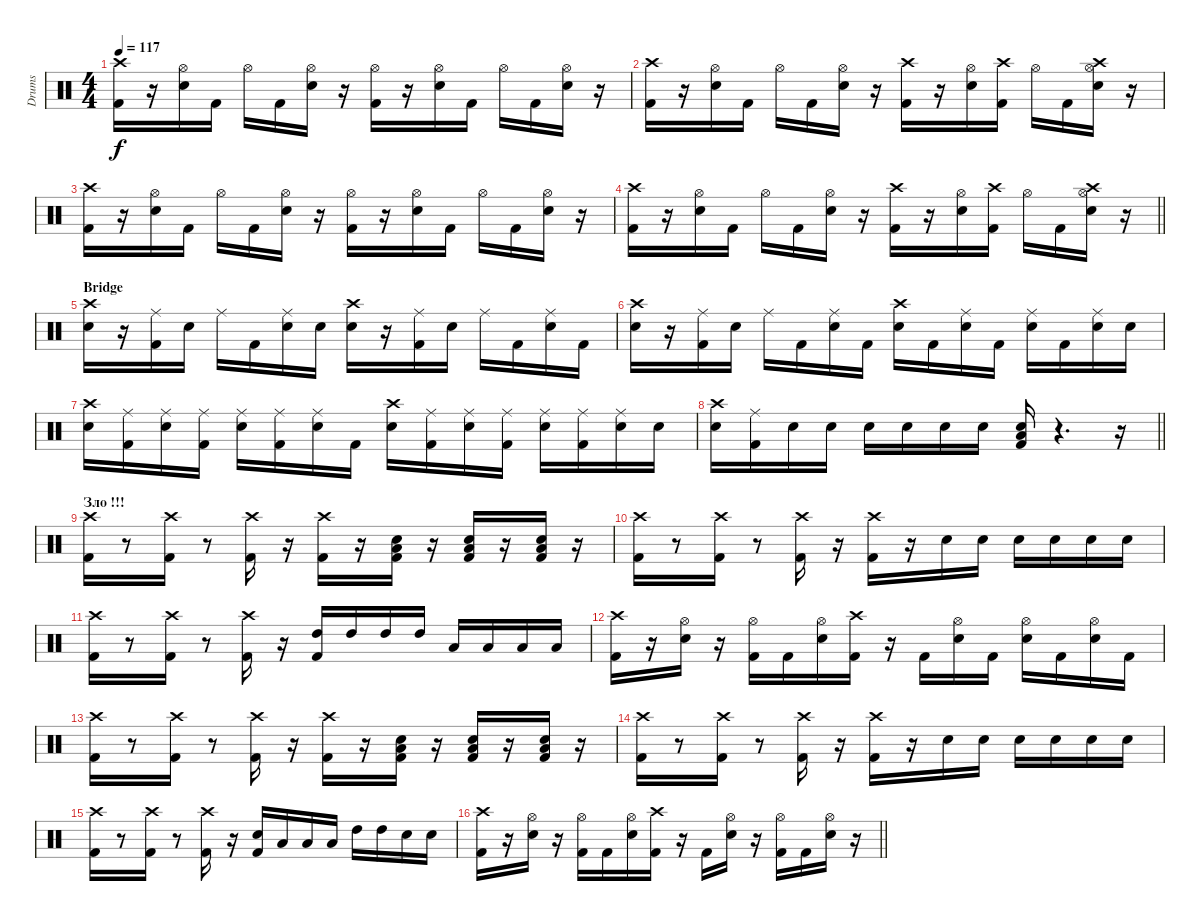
\track ("Drums" "Drums") {instrument percussion}
\staff {score}
\articulation defaults
\ts (4 4)
\tempo 117
\clef neutral
\ks c
("Kick (hit) 2" "Crash high (hit)").16{dy f} r.16 ("Snare (hit) 2" "Hi-Hat (open)").16 "Kick (hit) 2".16 "Hi-Hat (open)".16 "Kick (hit) 2".16 ("Snare (hit) 2" "Hi-Hat (open)").16 r.16 ("Kick (hit) 2" "Hi-Hat (open)").16 r.16 ("Snare (hit) 2" "Hi-Hat (open)").16 "Kick (hit) 2".16 "Hi-Hat (open)".16 "Kick (hit) 2".16 ("Snare (hit) 2" "Hi-Hat (open)").16 r.16 |
("Kick (hit) 2" "Crash high (hit)").16 r.16 ("Snare (hit) 2" "Hi-Hat (open)").16 "Kick (hit) 2".16 "Hi-Hat (open)".16 "Kick (hit) 2".16 ("Snare (hit) 2" "Hi-Hat (open)").16 r.16 ("Kick (hit) 2" "Crash high (hit)").16 r.16 ("Snare (hit) 2" "Hi-Hat (open)").16 ("Kick (hit) 2" "Crash high (hit)").16 "Hi-Hat (open)".16 "Kick (hit) 2".16 ("Snare (hit) 2" "Hi-Hat (open)" "Crash high (hit)").16 r.16 |
("Kick (hit) 2" "Crash high (hit)").16 r.16 ("Snare (hit) 2" "Hi-Hat (open)").16 "Kick (hit) 2".16 "Hi-Hat (open)".16 "Kick (hit) 2".16 ("Snare (hit) 2" "Hi-Hat (open)").16 r.16 ("Kick (hit) 2" "Hi-Hat (open)").16 r.16 ("Snare (hit) 2" "Hi-Hat (open)").16 "Kick (hit) 2".16 "Hi-Hat (open)".16 "Kick (hit) 2".16 ("Snare (hit) 2" "Hi-Hat (open)").16 r.16 |
\barLineRight lightlight
("Kick (hit) 2" "Crash high (hit)").16 r.16 ("Snare (hit) 2" "Hi-Hat (open)").16 "Kick (hit) 2".16 "Hi-Hat (open)".16 "Kick (hit) 2".16 ("Snare (hit) 2" "Hi-Hat (open)").16 r.16 ("Kick (hit) 2" "Crash high (hit)").16 r.16 ("Snare (hit) 2" "Hi-Hat (open)").16 ("Kick (hit) 2" "Crash high (hit)").16 "Hi-Hat (open)".16 "Kick (hit) 2".16 ("Snare (hit) 2" "Hi-Hat (open)" "Crash high (hit)").16 r.16 |
\section ("" "Bridge")
("Snare (hit) 2" "Crash high (hit)").16 r.16 ("Kick (hit) 2" "Ride (middle)").16 "Snare (hit) 2".16 "Ride (middle)".16 "Kick (hit) 2".16 ("Snare (hit) 2" "Ride (middle)").16 "Snare (hit) 2".16 ("Snare (hit) 2" "Crash high (hit)").16 r.16 ("Kick (hit) 2" "Ride (middle)").16 "Snare (hit) 2".16 "Ride (middle)".16 "Kick (hit) 2".16 ("Snare (hit) 2" "Ride (middle)").16 "Kick (hit) 2".16 |
("Snare (hit) 2" "Crash high (hit)").16 r.16 ("Kick (hit) 2" "Ride (middle)").16 "Snare (hit) 2".16 "Ride (middle)".16 "Kick (hit) 2".16 ("Snare (hit) 2" "Ride (middle)").16 "Kick (hit) 2".16 ("Snare (hit) 2" "Crash high (hit)").16 "Kick (hit) 2".16 ("Snare (hit) 2" "Ride (middle)").16 "Kick (hit) 2".16 ("Snare (hit) 2" "Ride (middle)").16 "Kick (hit) 2".16 ("Snare (hit) 2" "Ride (middle)").16 "Snare (hit) 2".16 |
("Snare (hit) 2" "Crash high (hit)").16 ("Kick (hit) 2" "Ride (middle)").16 ("Snare (hit) 2" "Ride (middle)").16 ("Kick (hit) 2" "Ride (middle)").16 ("Snare (hit) 2" "Ride (middle)").16 ("Kick (hit) 2" "Ride (middle)").16 ("Snare (hit) 2" "Ride (middle)").16 "Kick (hit) 2".16 ("Snare (hit) 2" "Crash high (hit)").16 ("Kick (hit) 2" "Ride (middle)").16 ("Snare (hit) 2" "Ride (middle)").16 ("Kick (hit) 2" "Ride (middle)").16 ("Snare (hit) 2" "Ride (middle)").16 ("Kick (hit) 2" "Ride (middle)").16 ("Snare (hit) 2" "Ride (middle)").16 "Snare (hit) 2".16 |
\barLineRight lightlight
("Crash high (hit)" "Snare (hit) 2").16 ("Ride (middle)" "Kick (hit) 2").16 "Snare (hit) 2".16 "Snare (hit) 2".16 "Snare (hit) 2".16 "Snare (hit) 2".16 "Snare (hit) 2".16 "Snare (hit) 2".16 ("Kick (hit) 2" "Snare (hit) 2" "Low Floor Tom (hit)").16 r.4{d} r.16 |
\section ("" "Зло !!!")
("Kick (hit) 2" "Crash high (hit)").16 r.8 ("Kick (hit) 2" "Crash high (hit)").16 r.8 ("Kick (hit) 2" "Crash high (hit)").16 r.16 ("Kick (hit) 2" "Crash high (hit)").16 r.16 ("Kick (hit) 2" "Snare (hit) 2" "Low Floor Tom (hit)").16 r.16 ("Kick (hit) 2" "Snare (hit) 2" "Low Tom (hit)").16 r.16 ("Kick (hit) 2" "Snare (hit) 2" "Low Tom (hit)").16 r.16 |
("Kick (hit) 2" "Crash high (hit)").16 r.8 ("Kick (hit) 2" "Crash high (hit)").16 r.8 ("Kick (hit) 2" "Crash high (hit)").16 r.16 ("Kick (hit) 2" "Crash high (hit)").16 r.16 "Snare (hit) 2".16 "Snare (hit) 2".16 "Snare (hit) 2".16 "Snare (hit) 2".16 "Snare (hit) 2".16 "Snare (hit) 2".16 |
("Kick (hit) 2" "Crash high (hit)").16 r.8 ("Kick (hit) 2" "Crash high (hit)").16 r.8 ("Kick (hit) 2" "Crash high (hit)").16 r.16 ("Kick (hit) 2" "High Tom (hit)").16 "High Tom (hit)".16 "High Tom (hit)".16 "High Tom (hit)".16 "Low Floor Tom (hit)".16 "Low Floor Tom (hit)".16 "Low Tom (hit)".16 "Low Tom (hit)".16 |
("Kick (hit) 2" "Crash high (hit)").16 r.16 ("Snare (hit) 2" "Hi-Hat (open)").16 r.16 ("Kick (hit) 2" "Hi-Hat (open)").16 "Kick (hit) 2".16 ("Snare (hit) 2" "Hi-Hat (open)").16 ("Kick (hit) 2" "Crash high (hit)").16 r.16 "Kick (hit) 2".16 ("Snare (hit) 2" "Hi-Hat (open)").16 "Kick (hit) 2".16 ("Snare (hit) 2" "Hi-Hat (open)").16 "Kick (hit) 2".16 ("Snare (hit) 2" "Hi-Hat (open)").16 "Kick (hit) 2".16 |
("Kick (hit) 2" "Crash high (hit)").16 r.8 ("Kick (hit) 2" "Crash high (hit)").16 r.8 ("Kick (hit) 2" "Crash high (hit)").16 r.16 ("Kick (hit) 2" "Crash high (hit)").16 r.16 ("Kick (hit) 2" "Snare (hit) 2" "Low Floor Tom (hit)").16 r.16 ("Kick (hit) 2" "Snare (hit) 2" "Low Tom (hit)").16 r.16 ("Kick (hit) 2" "Snare (hit) 2" "Low Tom (hit)").16 r.16 |
("Kick (hit) 2" "Crash high (hit)").16 r.8 ("Kick (hit) 2" "Crash high (hit)").16 r.8 ("Kick (hit) 2" "Crash high (hit)").16 r.16 ("Kick (hit) 2" "Crash high (hit)").16 r.16 "Snare (hit) 2".16 "Snare (hit) 2".16 "Snare (hit) 2".16 "Snare (hit) 2".16 "Snare (hit) 2".16 "Snare (hit) 2".16 |
("Kick (hit) 2" "Crash high (hit)").16 r.8 ("Kick (hit) 2" "Crash high (hit)").16 r.8 ("Kick (hit) 2" "Crash high (hit)").16 r.16 ("Snare (hit) 2" "Kick (hit) 2").16 "Low Floor Tom (hit)".16 "Low Tom (hit)".16 "Low Tom (hit)".16 "High Tom (hit)".16 "High Tom (hit)".16 "Snare (hit) 2".16 "Snare (hit) 2".16 |
\barLineRight lightlight
("Kick (hit) 2" "Crash high (hit)").16 r.16 ("Snare (hit) 2" "Hi-Hat (open)").16 r.16 ("Kick (hit) 2" "Hi-Hat (open)").16 "Kick (hit) 2".16 ("Snare (hit) 2" "Hi-Hat (open)").16 ("Kick (hit) 2" "Crash high (hit)").16 r.16 "Kick (hit) 2".16 ("Hi-Hat (open)" "Snare (hit) 2").16 r.16 ("Kick (hit) 2" "Hi-Hat (open)").16 "Kick (hit) 2".16 ("Hi-Hat (open)" "Snare (hit) 2").16 r.16
